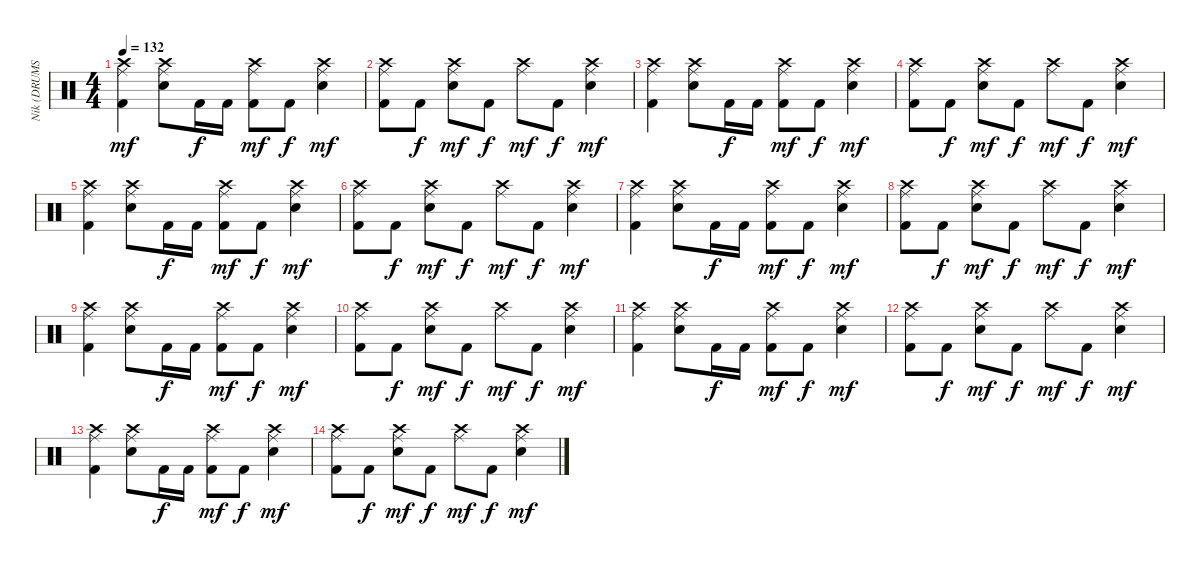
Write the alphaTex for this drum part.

\track ("Nik (DRUMS)" "Nik (DRUMS") {instrument percussion}
\staff {score}
\articulation defaults
\ts (4 4)
\tempo 132
\clef neutral
\ks c
("Crash high (hit)" "Ride (middle)" "Kick (hit) 2").4{dy mf} ("Crash high (hit)" "Ride (middle)" "Electric Snare (hit)").8 "Kick (hit) 2".16{dy f} "Kick (hit) 2".16 ("Crash high (hit)" "Ride (middle)" "Kick (hit) 2").8{dy mf} "Kick (hit) 2".8{dy f} ("Crash high (hit)" "Ride (middle)" "Electric Snare (hit)").4{dy mf} |
("Crash high (hit)" "Ride (middle)" "Kick (hit) 2").8 "Kick (hit) 2".8{dy f} ("Crash high (hit)" "Ride (middle)" "Electric Snare (hit)").8{dy mf} "Kick (hit) 2".8{dy f} ("Crash high (hit)" "Ride (middle)").8{dy mf} "Kick (hit) 2".8{dy f} ("Crash high (hit)" "Ride (middle)" "Electric Snare (hit)").4{dy mf} |
("Crash high (hit)" "Ride (middle)" "Kick (hit) 2").4 ("Crash high (hit)" "Ride (middle)" "Electric Snare (hit)").8 "Kick (hit) 2".16{dy f} "Kick (hit) 2".16 ("Crash high (hit)" "Ride (middle)" "Kick (hit) 2").8{dy mf} "Kick (hit) 2".8{dy f} ("Crash high (hit)" "Ride (middle)" "Electric Snare (hit)").4{dy mf} |
("Crash high (hit)" "Ride (middle)" "Kick (hit) 2").8 "Kick (hit) 2".8{dy f} ("Crash high (hit)" "Ride (middle)" "Electric Snare (hit)").8{dy mf} "Kick (hit) 2".8{dy f} ("Crash high (hit)" "Ride (middle)").8{dy mf} "Kick (hit) 2".8{dy f} ("Crash high (hit)" "Ride (middle)" "Electric Snare (hit)").4{dy mf} |
("Crash high (hit)" "Ride (middle)" "Kick (hit) 2").4 ("Crash high (hit)" "Ride (middle)" "Electric Snare (hit)").8 "Kick (hit) 2".16{dy f} "Kick (hit) 2".16 ("Crash high (hit)" "Ride (middle)" "Kick (hit) 2").8{dy mf} "Kick (hit) 2".8{dy f} ("Crash high (hit)" "Ride (middle)" "Electric Snare (hit)").4{dy mf} |
("Crash high (hit)" "Ride (middle)" "Kick (hit) 2").8 "Kick (hit) 2".8{dy f} ("Crash high (hit)" "Ride (middle)" "Electric Snare (hit)").8{dy mf} "Kick (hit) 2".8{dy f} ("Crash high (hit)" "Ride (middle)").8{dy mf} "Kick (hit) 2".8{dy f} ("Crash high (hit)" "Ride (middle)" "Electric Snare (hit)").4{dy mf} |
("Crash high (hit)" "Ride (middle)" "Kick (hit) 2").4 ("Crash high (hit)" "Ride (middle)" "Electric Snare (hit)").8 "Kick (hit) 2".16{dy f} "Kick (hit) 2".16 ("Crash high (hit)" "Ride (middle)" "Kick (hit) 2").8{dy mf} "Kick (hit) 2".8{dy f} ("Crash high (hit)" "Ride (middle)" "Electric Snare (hit)").4{dy mf} |
("Crash high (hit)" "Ride (middle)" "Kick (hit) 2").8 "Kick (hit) 2".8{dy f} ("Crash high (hit)" "Ride (middle)" "Electric Snare (hit)").8{dy mf} "Kick (hit) 2".8{dy f} ("Crash high (hit)" "Ride (middle)").8{dy mf} "Kick (hit) 2".8{dy f} ("Crash high (hit)" "Ride (middle)" "Electric Snare (hit)").4{dy mf} |
("Crash high (hit)" "Ride (middle)" "Kick (hit) 2").4 ("Crash high (hit)" "Ride (middle)" "Electric Snare (hit)").8 "Kick (hit) 2".16{dy f} "Kick (hit) 2".16 ("Crash high (hit)" "Ride (middle)" "Kick (hit) 2").8{dy mf} "Kick (hit) 2".8{dy f} ("Crash high (hit)" "Ride (middle)" "Electric Snare (hit)").4{dy mf} |
("Crash high (hit)" "Ride (middle)" "Kick (hit) 2").8 "Kick (hit) 2".8{dy f} ("Crash high (hit)" "Ride (middle)" "Electric Snare (hit)").8{dy mf} "Kick (hit) 2".8{dy f} ("Crash high (hit)" "Ride (middle)").8{dy mf} "Kick (hit) 2".8{dy f} ("Crash high (hit)" "Ride (middle)" "Electric Snare (hit)").4{dy mf} |
("Crash high (hit)" "Ride (middle)" "Kick (hit) 2").4 ("Crash high (hit)" "Ride (middle)" "Electric Snare (hit)").8 "Kick (hit) 2".16{dy f} "Kick (hit) 2".16 ("Crash high (hit)" "Ride (middle)" "Kick (hit) 2").8{dy mf} "Kick (hit) 2".8{dy f} ("Crash high (hit)" "Ride (middle)" "Electric Snare (hit)").4{dy mf} |
("Crash high (hit)" "Ride (middle)" "Kick (hit) 2").8 "Kick (hit) 2".8{dy f} ("Crash high (hit)" "Ride (middle)" "Electric Snare (hit)").8{dy mf} "Kick (hit) 2".8{dy f} ("Crash high (hit)" "Ride (middle)").8{dy mf} "Kick (hit) 2".8{dy f} ("Crash high (hit)" "Ride (middle)" "Electric Snare (hit)").4{dy mf} |
("Crash high (hit)" "Ride (middle)" "Kick (hit) 2").4 ("Crash high (hit)" "Ride (middle)" "Electric Snare (hit)").8 "Kick (hit) 2".16{dy f} "Kick (hit) 2".16 ("Crash high (hit)" "Ride (middle)" "Kick (hit) 2").8{dy mf} "Kick (hit) 2".8{dy f} ("Crash high (hit)" "Ride (middle)" "Electric Snare (hit)").4{dy mf} |
("Crash high (hit)" "Ride (middle)" "Kick (hit) 2").8 "Kick (hit) 2".8{dy f} ("Crash high (hit)" "Ride (middle)" "Electric Snare (hit)").8{dy mf} "Kick (hit) 2".8{dy f} ("Crash high (hit)" "Ride (middle)").8{dy mf} "Kick (hit) 2".8{dy f} ("Crash high (hit)" "Ride (middle)" "Electric Snare (hit)").4{dy mf}
